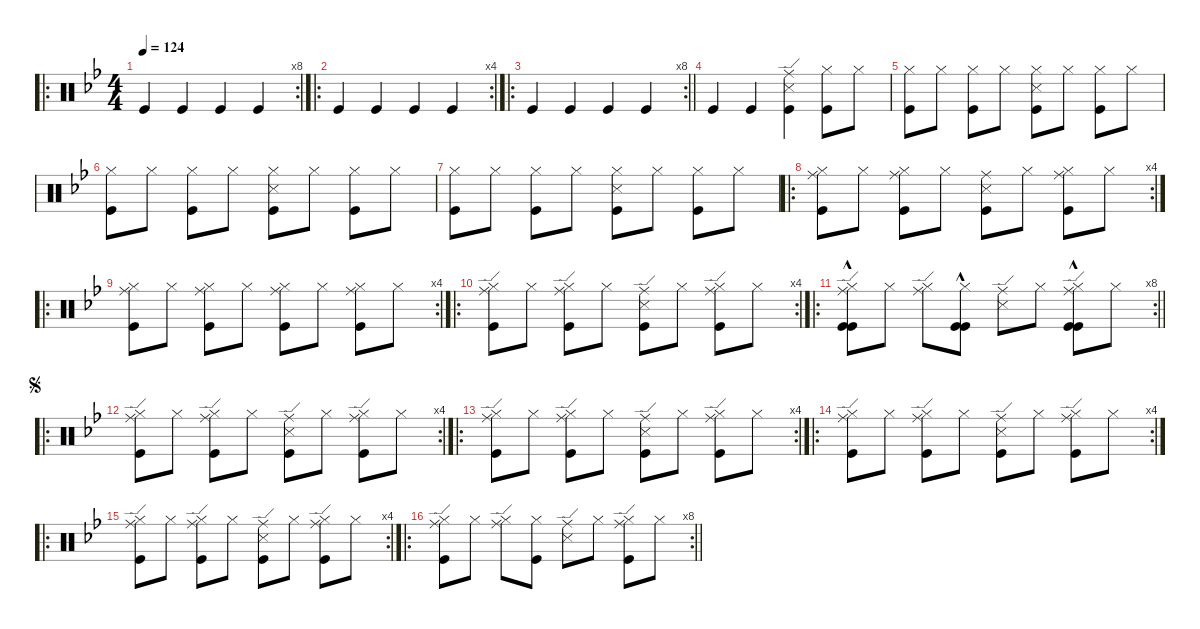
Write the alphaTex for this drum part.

\defaultSystemsLayout 4
\hideDynamics
\bracketExtendMode nobrackets
\singleTrackTrackNamePolicy hidden
\multiTrackTrackNamePolicy hidden
\firstSystemTrackNameMode fullname
\otherSystemsTrackNameOrientation horizontal
\track ("Percussion" "drm.") {defaultSystemsLayout 4 instrument percussion}
\staff {score}
\articulation defaults
\ro
\rc 8
\ts (4 4)
\beaming (8 2 2 2 2)
\tempo 124
\clef neutral
\ks gminor "Kick (hit)"{acc forcenatural}.4{dy f beam Up} "Kick (hit)"{acc forcenatural}.4{beam Up} "Kick (hit)"{acc forcenatural}.4{beam Up} "Kick (hit)"{acc forcenatural}.4{beam Up}
|
\ro
\rc 4 "Kick (hit)"{acc forcenatural}.4{beam Up} "Kick (hit)"{acc forcenatural}.4{beam Up} "Kick (hit)"{acc forcenatural}.4{beam Up} "Kick (hit)"{acc forcenatural}.4{beam Up}
|
\ro
\rc 8
\barLineRight lightlight "Kick (hit)"{acc forcenatural}.4{beam Up} "Kick (hit)"{acc forcenatural}.4{beam Up} "Kick (hit)"{acc forcenatural}.4{beam Up} "Kick (hit)"{acc forcenatural}.4{beam Up}
|
"Kick (hit)"{acc forcenatural}.4{beam Up} "Kick (hit)"{acc forcenatural}.4{beam Up} ("Ride (edge)"{acc forcenatural} "Snare (side stick) 3"{acc forcenatural} "Kick (hit)"{acc forcenatural}).4{beam Down} ("Hi-Hat (closed)"{acc forcenatural} "Kick (hit)"{acc forcenatural}).8{beam Down} "Hi-Hat (closed)"{acc forcenatural}.8{beam Down} |
("Hi-Hat (closed)"{acc forcenatural} "Kick (hit)"{acc forcenatural}).8{beam Down} "Hi-Hat (closed)"{acc forcenatural}.8{beam Down} ("Hi-Hat (closed)"{acc forcenatural} "Kick (hit)"{acc forcenatural}).8{beam Down} "Hi-Hat (closed)"{acc forcenatural}.8{beam Down} ("Hi-Hat (closed)"{acc forcenatural} "Snare (side stick) 3"{acc forcenatural} "Kick (hit)"{acc forcenatural}).8{beam Down} "Hi-Hat (closed)"{acc forcenatural}.8{beam Down} ("Hi-Hat (closed)"{acc forcenatural} "Kick (hit)"{acc forcenatural}).8{beam Down} "Hi-Hat (closed)"{acc forcenatural}.8{beam Down} |
("Hi-Hat (closed)"{acc forcenatural} "Kick (hit)"{acc forcenatural}).8{beam Down} "Hi-Hat (closed)"{acc forcenatural}.8{beam Down} ("Hi-Hat (closed)"{acc forcenatural} "Kick (hit)"{acc forcenatural}).8{beam Down} "Hi-Hat (closed)"{acc forcenatural}.8{beam Down} ("Hi-Hat (closed)"{acc forcenatural} "Snare (side stick) 3"{acc forcenatural} "Kick (hit)"{acc forcenatural}).8{beam Down} "Hi-Hat (closed)"{acc forcenatural}.8{beam Down} ("Hi-Hat (closed)"{acc forcenatural} "Kick (hit)"{acc forcenatural}).8{beam Down} "Hi-Hat (closed)"{acc forcenatural}.8{beam Down} |
("Hi-Hat (closed)"{acc forcenatural} "Kick (hit)"{acc forcenatural}).8{beam Down} "Hi-Hat (closed)"{acc forcenatural}.8{beam Down} ("Hi-Hat (closed)"{acc forcenatural} "Kick (hit)"{acc forcenatural}).8{beam Down} "Hi-Hat (closed)"{acc forcenatural}.8{beam Down} ("Hi-Hat (closed)"{acc forcenatural} "Snare (side stick) 3"{acc forcenatural} "Kick (hit)"{acc forcenatural}).8{beam Down} "Hi-Hat (closed)"{acc forcenatural}.8{beam Down} ("Hi-Hat (closed)"{acc forcenatural} "Kick (hit)"{acc forcenatural}).8{beam Down} "Hi-Hat (closed)"{acc forcenatural}.8{beam Down} |
\ro
\rc 4
("Ride (middle)"{acc forcenatural} "Hi-Hat (closed)"{acc forcenatural} "Kick (hit)"{acc forcenatural}).8{beam Down} "Hi-Hat (closed)"{acc forcenatural}.8{beam Down} ("Ride (middle)"{acc forcenatural} "Hi-Hat (closed)"{acc forcenatural} "Kick (hit)"{acc forcenatural}).8{beam Down} "Hi-Hat (closed)"{acc forcenatural}.8{beam Down} ("Ride (middle)"{acc forcenatural} "Snare (side stick) 3"{acc forcenatural} "Kick (hit)"{acc forcenatural}).8{beam Down} "Hi-Hat (closed)"{acc forcenatural}.8{beam Down} ("Ride (middle)"{acc forcenatural} "Hi-Hat (closed)"{acc forcenatural} "Kick (hit)"{acc forcenatural}).8{beam Down} "Hi-Hat (closed)"{acc forcenatural}.8{beam Down} |
\ro
\rc 4
("Ride (middle)"{acc forcenatural} "Hi-Hat (closed)"{acc forcenatural} "Kick (hit)"{acc forcenatural}).8{beam Down} "Hi-Hat (closed)"{acc forcenatural}.8{beam Down} ("Ride (middle)"{acc forcenatural} "Hi-Hat (closed)"{acc forcenatural} "Kick (hit)"{acc forcenatural}).8{beam Down} "Hi-Hat (closed)"{acc forcenatural}.8{beam Down} ("Ride (middle)"{acc forcenatural} "Hi-Hat (closed)"{acc forcenatural} "Kick (hit)"{acc forcenatural}).8{beam Down} "Hi-Hat (closed)"{acc forcenatural}.8{beam Down} ("Ride (middle)"{acc forcenatural} "Hi-Hat (closed)"{acc forcenatural} "Kick (hit)"{acc forcenatural}).8{beam Down} "Hi-Hat (closed)"{acc forcenatural}.8{beam Down} |
\ro
\rc 4
("Ride (edge)"{acc forcenatural} "Hi-Hat (closed)"{acc forcenatural} "Kick (hit)"{acc forcenatural}).8{beam Down} "Hi-Hat (closed)"{acc forcenatural}.8{beam Down} ("Ride (edge)"{acc forcenatural} "Hi-Hat (closed)"{acc forcenatural} "Kick (hit)"{acc forcenatural}).8{beam Down} "Hi-Hat (closed)"{acc forcenatural}.8{beam Down} ("Ride (edge)"{acc forcenatural} "Snare (side stick) 3"{acc forcenatural} "Kick (hit)"{acc forcenatural}).8{beam Down} "Hi-Hat (closed)"{acc forcenatural}.8{beam Down} ("Ride (edge)"{acc forcenatural} "Hi-Hat (closed)"{acc forcenatural} "Kick (hit)"{acc forcenatural}).8{beam Down} "Hi-Hat (closed)"{acc forcenatural}.8{beam Down} |
\ro
\rc 8
\barLineRight lightlight
("Ride (edge)"{acc forcenatural} "Hi-Hat (closed)"{acc forcenatural} "Kick (hit)"{hac acc forcenatural} "Kick (hit)"{hac acc forcenatural}).8{beam Down} "Hi-Hat (closed)"{acc forcenatural}.8{beam Down} ("Ride (edge)"{acc forcenatural} "Hi-Hat (closed)"{acc forcenatural}).8{beam Down} ("Hi-Hat (closed)"{acc forcenatural} "Kick (hit)"{hac acc forcenatural} "Kick (hit)"{hac acc forcenatural}).8{beam Down} ("Ride (edge)"{acc forcenatural} "Snare (side stick) 3"{acc forcenatural}).8{beam Down} "Hi-Hat (closed)"{acc forcenatural}.8{beam Down} ("Ride (edge)"{acc forcenatural} "Hi-Hat (closed)"{acc forcenatural} "Kick (hit)"{hac acc forcenatural} "Kick (hit)"{hac acc forcenatural}).8{beam Down} "Hi-Hat (closed)"{acc forcenatural}.8{beam Down} |
\ro
\rc 4
\jump segno
("Ride (edge)"{acc forcenatural} "Hi-Hat (closed)"{acc forcenatural} "Kick (hit)"{acc forcenatural}).8{beam Down} "Hi-Hat (closed)"{acc forcenatural}.8{beam Down} ("Ride (edge)"{acc forcenatural} "Hi-Hat (closed)"{acc forcenatural} "Kick (hit)"{acc forcenatural}).8{beam Down} "Hi-Hat (closed)"{acc forcenatural}.8{beam Down} ("Ride (edge)"{acc forcenatural} "Snare (side stick) 3"{acc forcenatural} "Kick (hit)"{acc forcenatural}).8{beam Down} "Hi-Hat (closed)"{acc forcenatural}.8{beam Down} ("Ride (edge)"{acc forcenatural} "Hi-Hat (closed)"{acc forcenatural} "Kick (hit)"{acc forcenatural}).8{beam Down} "Hi-Hat (closed)"{acc forcenatural}.8{beam Down} |
\ro
\rc 4
("Ride (edge)"{acc forcenatural} "Hi-Hat (closed)"{acc forcenatural} "Kick (hit)"{acc forcenatural}).8{beam Down} "Hi-Hat (closed)"{acc forcenatural}.8{beam Down} ("Ride (edge)"{acc forcenatural} "Hi-Hat (closed)"{acc forcenatural} "Kick (hit)"{acc forcenatural}).8{beam Down} "Hi-Hat (closed)"{acc forcenatural}.8{beam Down} ("Ride (edge)"{acc forcenatural} "Snare (side stick) 3"{acc forcenatural} "Kick (hit)"{acc forcenatural}).8{beam Down} "Hi-Hat (closed)"{acc forcenatural}.8{beam Down} ("Ride (edge)"{acc forcenatural} "Hi-Hat (closed)"{acc forcenatural} "Kick (hit)"{acc forcenatural}).8{beam Down} "Hi-Hat (closed)"{acc forcenatural}.8{beam Down} |
\ro
\rc 4
("Ride (edge)"{acc forcenatural} "Hi-Hat (closed)"{acc forcenatural} "Kick (hit)"{acc forcenatural}).8{beam Down} "Hi-Hat (closed)"{acc forcenatural}.8{beam Down} ("Ride (edge)"{acc forcenatural} "Hi-Hat (closed)"{acc forcenatural} "Kick (hit)"{acc forcenatural}).8{beam Down} "Hi-Hat (closed)"{acc forcenatural}.8{beam Down} ("Ride (edge)"{acc forcenatural} "Snare (side stick) 3"{acc forcenatural} "Kick (hit)"{acc forcenatural}).8{beam Down} "Hi-Hat (closed)"{acc forcenatural}.8{beam Down} ("Ride (edge)"{acc forcenatural} "Hi-Hat (closed)"{acc forcenatural} "Kick (hit)"{acc forcenatural}).8{beam Down} "Hi-Hat (closed)"{acc forcenatural}.8{beam Down} |
\ro
\rc 4
("Ride (edge)"{acc forcenatural} "Hi-Hat (closed)"{acc forcenatural} "Kick (hit)"{acc forcenatural}).8{beam Down} "Hi-Hat (closed)"{acc forcenatural}.8{beam Down} ("Ride (edge)"{acc forcenatural} "Hi-Hat (closed)"{acc forcenatural} "Kick (hit)"{acc forcenatural}).8{beam Down} "Hi-Hat (closed)"{acc forcenatural}.8{beam Down} ("Ride (edge)"{acc forcenatural} "Snare (side stick) 3"{acc forcenatural} "Kick (hit)"{acc forcenatural}).8{beam Down} "Hi-Hat (closed)"{acc forcenatural}.8{beam Down} ("Ride (edge)"{acc forcenatural} "Hi-Hat (closed)"{acc forcenatural} "Kick (hit)"{acc forcenatural}).8{beam Down} "Hi-Hat (closed)"{acc forcenatural}.8{beam Down} |
\ro
\rc 8
\barLineRight lightlight
("Ride (edge)"{acc forcenatural} "Hi-Hat (closed)"{acc forcenatural} "Kick (hit)"{acc forcenatural}).8{beam Down} "Hi-Hat (closed)"{acc forcenatural}.8{beam Down} ("Ride (edge)"{acc forcenatural} "Hi-Hat (closed)"{acc forcenatural}).8{beam Down} ("Hi-Hat (closed)"{acc forcenatural} "Kick (hit)"{acc forcenatural}).8{beam Down} ("Ride (edge)"{acc forcenatural} "Snare (side stick) 3"{acc forcenatural}).8{beam Down} "Hi-Hat (closed)"{acc forcenatural}.8{beam Down} ("Ride (edge)"{acc forcenatural} "Hi-Hat (closed)"{acc forcenatural} "Kick (hit)"{acc forcenatural}).8{beam Down} "Hi-Hat (closed)"{acc forcenatural}.8{beam Down}
